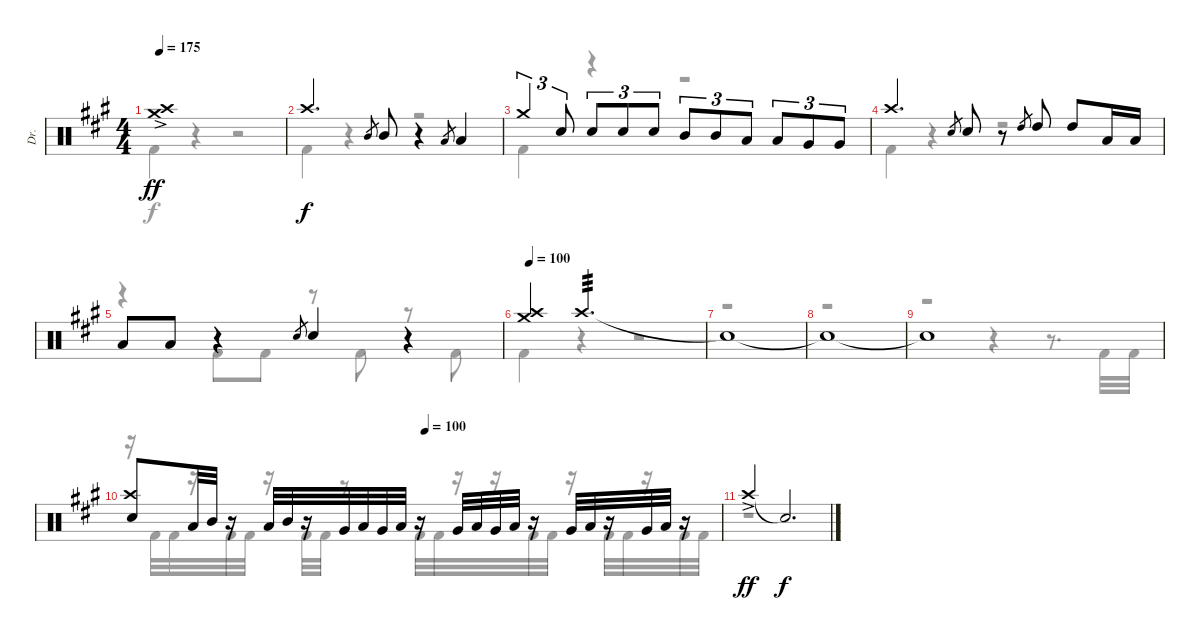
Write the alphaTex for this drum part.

\track ("Dr." "Dr.") {instrument percussion}
\staff {score}
\articulation defaults
\voice
\ts (4 4)
\tempo 175
\clef neutral
\ks f#minor
("Crash medium (hit)"{ac} "Crash high (hit)"{ac}).1{dy ff} |
"Crash high (hit)".4{d dy f} "Mid Tom (hit)".8{gr} "Mid Tom (hit)".8 r.4 "Low Tom (hit)".8{gr} "Low Tom (hit)".4 |
"Crash medium (hit)".4{tu (3 2)} "Electric Snare (hit)".8{tu (3 2)} "Electric Snare (hit)".8{tu (3 2)} "Electric Snare (hit)".8{tu (3 2)} "Electric Snare (hit)".8{tu (3 2)} "Mid Tom (hit)".8{tu (3 2)} "Mid Tom (hit)".8{tu (3 2)} "Low Tom (hit)".8{tu (3 2)} "Low Tom (hit)".8{tu (3 2)} "Very Low Tom (hit)".8{tu (3 2)} "Very Low Tom (hit)".8{tu (3 2)} |
"Crash high (hit)".4{d} "Electric Snare (hit)".8{gr} "Electric Snare (hit)".8 r.8 "High Tom (hit)".8{gr} "High Tom (hit)".8 "High Tom (hit)".8 "Low Tom (hit)".16 "Low Tom (hit)".16 |
"Low Tom (hit)".8 "Low Tom (hit)".8 r.4 "Electric Snare (hit)".8{gr} "Electric Snare (hit)".4 r.4 |
\tempo 100
("Crash high (hit)" "Crash medium (hit)").4 "Crash high (hit)".2{d tp 3} |
"Snare (hit)"{t}.1 |
"Snare (hit)"{t}.1 |
"Snare (hit)"{t}.1 |
\tempo (100 0.5)
("Crash high (hit)" "Electric Snare (hit)").8 "Low Tom (hit)".32 "Mid Tom (hit)".32 r.16 "Low Tom (hit)".32 "Mid Tom (hit)".32 r.16 "Very Low Tom (hit)".32 "Low Tom (hit)".32 "Very Low Tom (hit)".32 "Low Tom (hit)".32 r.16 "Very Low Tom (hit)".32 "Low Tom (hit)".32 "Very Low Tom (hit)".32 "Low Tom (hit)".32 r.16 "Very Low Tom (hit)".32 "Low Tom (hit)".32 r.16 "Very Low Tom (hit)".32 "Low Tom (hit)".32 r.16 |
"Crash high (hit)"{ac}.4{dy ff} "Snare (hit)"{t}.2{d dy f}
\voice
\clef neutral
\ottava regular
\simile none
\ks f#minor "Kick (hit) 2".4{dy f}
r.4 r.2 |
"Kick (hit) 2".4 r.4 r.2 |
"Kick (hit) 2".4 r.4 r.2 |
"Kick (hit) 2".4 r.4 r.2 |
r.4 "Kick (hit) 2".8 "Kick (hit) 2".8 r.8 "Kick (hit) 2".8 r.8 "Kick (hit) 2".8 |
"Kick (hit) 2".4 r.4 r.2 |
r.1 |
r.1 |
r.2 r.4 r.8{d} "Kick (hit) 2".32 "Kick (hit) 2".32 |
r.16 "Kick (hit) 2".32 "Kick (hit) 2".32 r.16 "Kick (hit) 2".32 "Kick (hit) 2".32 r.16 "Kick (hit) 2".32 "Kick (hit) 2".32 r.8 "Kick (hit) 2".32 "Kick (hit) 2".32 r.16 r.16 "Kick (hit) 2".32 "Kick (hit) 2".32 r.16 "Kick (hit) 2".32 "Kick (hit) 2".32 r.16 "Kick (hit) 2".32 "Kick (hit) 2".32 |
r.1
